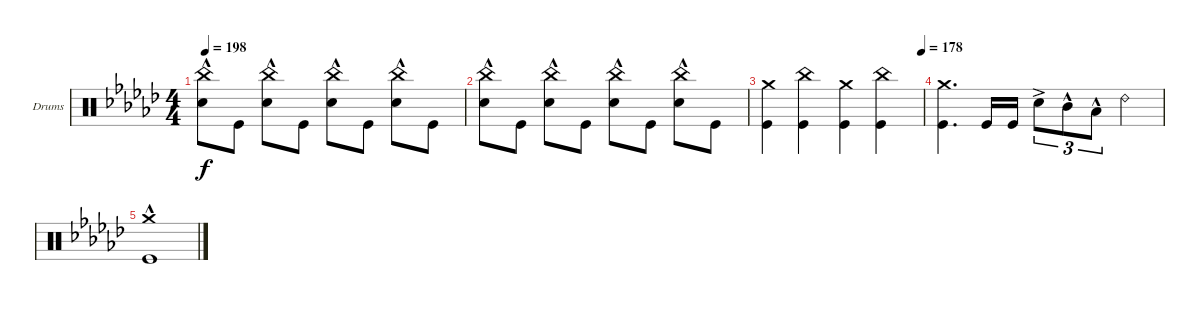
\bracketExtendMode groupsimilarinstruments
\firstSystemTrackNameOrientation horizontal
\otherSystemsTrackNameOrientation horizontal
\track ("Drumkit" "Drums") {instrument percussion}
\staff {score}
\articulation defaults
\ts (4 4)
\tempo 198
\clef neutral
\ks ebminor
("Snare (hit) 2"{hac} "China (hit)").8{dy f} "Kick (hit)".8 ("Snare (hit) 2"{hac} "China (hit)").8 "Kick (hit)".8 ("Snare (hit) 2"{hac} "China (hit)").8 "Kick (hit)".8 ("Snare (hit) 2"{hac} "China (hit)").8 "Kick (hit)".8 |
("Snare (hit) 2"{hac} "China (hit)").8 "Kick (hit)".8 ("Snare (hit) 2"{hac} "China (hit)").8 "Kick (hit)".8 ("Snare (hit) 2"{hac} "China (hit)").8 "Kick (hit)".8 ("Snare (hit) 2"{hac} "China (hit)").8 "Kick (hit)".8 |
\tempo (178 0.99375)
("Kick (hit)" "Crash medium (hit)").4 ("Kick (hit)" "China (hit)").4 ("Kick (hit)" "Crash medium (hit)").4 ("Kick (hit)" "China (hit)").4 |
("Kick (hit)" "Crash medium (hit)").4{d} "Kick (hit)".16 "Kick (hit)".16 "Snare (hit) 2"{ac}.8{tu (3 2)} "Mid Tom (hit)"{hac}.8{tu (3 2)} "Low Tom (hit)"{hac}.8{tu (3 2)} "Ride (bell) 2".4 |
("Kick (hit)" "Crash medium (hit)"{hac}).1
